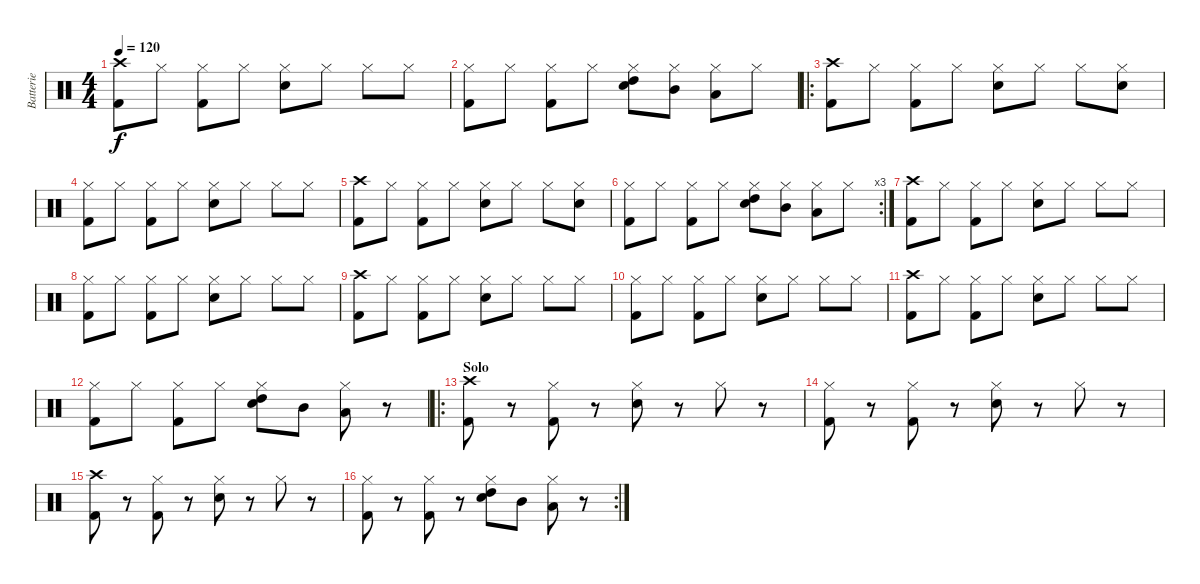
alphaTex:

\track ("Batterie" "Batterie") {instrument percussion}
\staff {score}
\articulation defaults
\ts (4 4)
\tempo 120
\clef neutral
\ks c
("Crash high (hit)" "Kick (hit) 2").8{dy f} "Hi-Hat (closed)".8 ("Hi-Hat (closed)" "Kick (hit) 2").8 "Hi-Hat (closed)".8 ("Hi-Hat (closed)" "Electric Snare (hit)").8 "Hi-Hat (closed)".8 "Hi-Hat (closed)".8 "Hi-Hat (closed)".8 |
("Hi-Hat (closed)" "Kick (hit) 2").8 "Hi-Hat (closed)".8 ("Hi-Hat (closed)" "Kick (hit) 2").8 "Hi-Hat (closed)".8 ("Hi-Hat (closed)" "Electric Snare (hit)" "High Tom (hit)").8 ("Hi-Hat (closed)" "Mid Tom (hit)").8 ("Hi-Hat (closed)" "Low Tom (hit)").8 "Hi-Hat (closed)".8 |
\ro
("Crash high (hit)" "Kick (hit) 2").8 "Hi-Hat (closed)".8 ("Hi-Hat (closed)" "Kick (hit) 2").8 "Hi-Hat (closed)".8 ("Hi-Hat (closed)" "Electric Snare (hit)").8 "Hi-Hat (closed)".8 "Hi-Hat (closed)".8 ("Hi-Hat (closed)" "Electric Snare (hit)").8 |
("Hi-Hat (closed)" "Kick (hit) 2").8 "Hi-Hat (closed)".8 ("Hi-Hat (closed)" "Kick (hit) 2").8 "Hi-Hat (closed)".8 ("Hi-Hat (closed)" "Electric Snare (hit)").8 "Hi-Hat (closed)".8 "Hi-Hat (closed)".8 "Hi-Hat (closed)".8 |
("Crash high (hit)" "Kick (hit) 2").8 "Hi-Hat (closed)".8 ("Hi-Hat (closed)" "Kick (hit) 2").8 "Hi-Hat (closed)".8 ("Hi-Hat (closed)" "Electric Snare (hit)").8 "Hi-Hat (closed)".8 "Hi-Hat (closed)".8 ("Hi-Hat (closed)" "Electric Snare (hit)").8 |
\rc 3
("Hi-Hat (closed)" "Kick (hit) 2").8 "Hi-Hat (closed)".8 ("Hi-Hat (closed)" "Kick (hit) 2").8 "Hi-Hat (closed)".8 ("Hi-Hat (closed)" "Electric Snare (hit)" "High Tom (hit)").8 ("Hi-Hat (closed)" "Mid Tom (hit)").8 ("Hi-Hat (closed)" "Low Tom (hit)").8 "Hi-Hat (closed)".8 |
("Crash high (hit)" "Kick (hit) 2").8 "Hi-Hat (closed)".8 ("Hi-Hat (closed)" "Kick (hit) 2").8 "Hi-Hat (closed)".8 ("Hi-Hat (closed)" "Electric Snare (hit)").8 "Hi-Hat (closed)".8 "Hi-Hat (closed)".8 "Hi-Hat (closed)".8 |
("Hi-Hat (closed)" "Kick (hit) 2").8 "Hi-Hat (closed)".8 ("Hi-Hat (closed)" "Kick (hit) 2").8 "Hi-Hat (closed)".8 ("Hi-Hat (closed)" "Electric Snare (hit)").8 "Hi-Hat (closed)".8 "Hi-Hat (closed)".8 "Hi-Hat (closed)".8 |
("Crash high (hit)" "Kick (hit) 2").8 "Hi-Hat (closed)".8 ("Hi-Hat (closed)" "Kick (hit) 2").8 "Hi-Hat (closed)".8 ("Hi-Hat (closed)" "Electric Snare (hit)").8 "Hi-Hat (closed)".8 "Hi-Hat (closed)".8 "Hi-Hat (closed)".8 |
("Hi-Hat (closed)" "Kick (hit) 2").8 "Hi-Hat (closed)".8 ("Hi-Hat (closed)" "Kick (hit) 2").8 "Hi-Hat (closed)".8 ("Hi-Hat (closed)" "Electric Snare (hit)").8 "Hi-Hat (closed)".8 "Hi-Hat (closed)".8 "Hi-Hat (closed)".8 |
("Crash high (hit)" "Kick (hit) 2").8 "Hi-Hat (closed)".8 ("Hi-Hat (closed)" "Kick (hit) 2").8 "Hi-Hat (closed)".8 ("Hi-Hat (closed)" "Electric Snare (hit)").8 "Hi-Hat (closed)".8 "Hi-Hat (closed)".8 "Hi-Hat (closed)".8 |
("Hi-Hat (closed)" "Kick (hit) 2").8 "Hi-Hat (closed)".8 ("Hi-Hat (closed)" "Kick (hit) 2").8 "Hi-Hat (closed)".8 ("Hi-Hat (closed)" "Electric Snare (hit)" "High Tom (hit)").8 "Mid Tom (hit)".8 ("Hi-Hat (closed)" "Low Tom (hit)").8 r.8 |
\ro
\section ("" "Solo")
("Crash high (hit)" "Kick (hit) 2").8 r.8 ("Hi-Hat (closed)" "Kick (hit) 2").8 r.8 ("Hi-Hat (closed)" "Electric Snare (hit)").8 r.8 "Hi-Hat (closed)".8 r.8 |
("Hi-Hat (closed)" "Kick (hit) 2").8 r.8 ("Hi-Hat (closed)" "Kick (hit) 2").8 r.8 ("Hi-Hat (closed)" "Electric Snare (hit)").8 r.8 "Hi-Hat (closed)".8 r.8 |
("Crash high (hit)" "Kick (hit) 2").8 r.8 ("Hi-Hat (closed)" "Kick (hit) 2").8 r.8 ("Hi-Hat (closed)" "Electric Snare (hit)").8 r.8 "Hi-Hat (closed)".8 r.8 |
\rc 2
("Hi-Hat (closed)" "Kick (hit) 2").8 r.8 ("Hi-Hat (closed)" "Kick (hit) 2").8 r.8 ("Hi-Hat (closed)" "Electric Snare (hit)" "High Tom (hit)").8 "Mid Tom (hit)".8 ("Hi-Hat (closed)" "Low Tom (hit)").8 r.8
